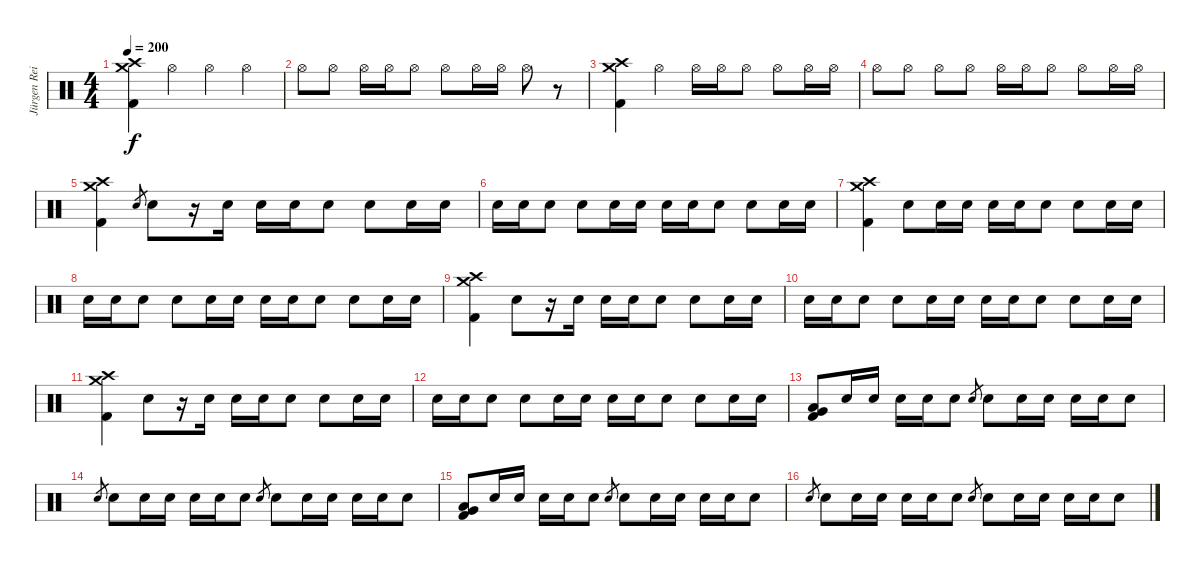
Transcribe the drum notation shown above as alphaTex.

\track ("Jürgen Reil" "Jürgen Rei") {instrument percussion}
\staff {score}
\articulation defaults
\ts (4 4)
\tempo 200
\tempo 135
\tempo 200
\clef neutral
\ks c
("Crash medium (hit)" "Crash high (hit)" "Kick (hit) 2").4{dy f} "Hi-Hat (open)".4 "Hi-Hat (open)".4 "Hi-Hat (open)".4 |
"Hi-Hat (open)".8 "Hi-Hat (open)".8 "Hi-Hat (open)".16 "Hi-Hat (open)".16 "Hi-Hat (open)".8 "Hi-Hat (open)".8 "Hi-Hat (open)".16 "Hi-Hat (open)".16 "Hi-Hat (open)".8 r.8 |
("Crash medium (hit)" "Crash high (hit)" "Kick (hit) 2").4 "Hi-Hat (open)".4 "Hi-Hat (open)".16 "Hi-Hat (open)".16 "Hi-Hat (open)".8 "Hi-Hat (open)".8 "Hi-Hat (open)".16 "Hi-Hat (open)".16 |
"Hi-Hat (open)".8 "Hi-Hat (open)".8 "Hi-Hat (open)".8 "Hi-Hat (open)".8 "Hi-Hat (open)".16 "Hi-Hat (open)".16 "Hi-Hat (open)".8 "Hi-Hat (open)".8 "Hi-Hat (open)".16 "Hi-Hat (open)".16 |
("Crash medium (hit)" "Crash high (hit)" "Kick (hit) 2").4 "Electric Snare (hit)".8{gr} "Electric Snare (hit)".8 r.16 "Electric Snare (hit)".16 "Electric Snare (hit)".16 "Electric Snare (hit)".16 "Electric Snare (hit)".8 "Electric Snare (hit)".8 "Electric Snare (hit)".16 "Electric Snare (hit)".16 |
"Electric Snare (hit)".16 "Electric Snare (hit)".16 "Electric Snare (hit)".8 "Electric Snare (hit)".8 "Electric Snare (hit)".16 "Electric Snare (hit)".16 "Electric Snare (hit)".16 "Electric Snare (hit)".16 "Electric Snare (hit)".8 "Electric Snare (hit)".8 "Electric Snare (hit)".16 "Electric Snare (hit)".16 |
("Crash medium (hit)" "Crash high (hit)" "Kick (hit) 2").4 "Electric Snare (hit)".8 "Electric Snare (hit)".16 "Electric Snare (hit)".16 "Electric Snare (hit)".16 "Electric Snare (hit)".16 "Electric Snare (hit)".8 "Electric Snare (hit)".8 "Electric Snare (hit)".16 "Electric Snare (hit)".16 |
"Electric Snare (hit)".16 "Electric Snare (hit)".16 "Electric Snare (hit)".8 "Electric Snare (hit)".8 "Electric Snare (hit)".16 "Electric Snare (hit)".16 "Electric Snare (hit)".16 "Electric Snare (hit)".16 "Electric Snare (hit)".8 "Electric Snare (hit)".8 "Electric Snare (hit)".16 "Electric Snare (hit)".16 |
("Crash medium (hit)" "Crash high (hit)" "Kick (hit) 2").4 "Electric Snare (hit)".8 r.16 "Electric Snare (hit)".16 "Electric Snare (hit)".16 "Electric Snare (hit)".16 "Electric Snare (hit)".8 "Electric Snare (hit)".8 "Electric Snare (hit)".16 "Electric Snare (hit)".16 |
"Electric Snare (hit)".16 "Electric Snare (hit)".16 "Electric Snare (hit)".8 "Electric Snare (hit)".8 "Electric Snare (hit)".16 "Electric Snare (hit)".16 "Electric Snare (hit)".16 "Electric Snare (hit)".16 "Electric Snare (hit)".8 "Electric Snare (hit)".8 "Electric Snare (hit)".16 "Electric Snare (hit)".16 |
("Crash medium (hit)" "Crash high (hit)" "Kick (hit) 2").4 "Electric Snare (hit)".8 r.16 "Electric Snare (hit)".16 "Electric Snare (hit)".16 "Electric Snare (hit)".16 "Electric Snare (hit)".8 "Electric Snare (hit)".8 "Electric Snare (hit)".16 "Electric Snare (hit)".16 |
"Electric Snare (hit)".16 "Electric Snare (hit)".16 "Electric Snare (hit)".8 "Electric Snare (hit)".8 "Electric Snare (hit)".16 "Electric Snare (hit)".16 "Electric Snare (hit)".16 "Electric Snare (hit)".16 "Electric Snare (hit)".8 "Electric Snare (hit)".8 "Electric Snare (hit)".16 "Electric Snare (hit)".16 |
("Very Low Tom (hit)" "Low Floor Tom (hit)" "Kick (hit) 2").8 "Electric Snare (hit)".16 "Electric Snare (hit)".16 "Electric Snare (hit)".16 "Electric Snare (hit)".16 "Electric Snare (hit)".8 "Electric Snare (hit)".8{gr} "Electric Snare (hit)".8 "Electric Snare (hit)".16 "Electric Snare (hit)".16 "Electric Snare (hit)".16 "Electric Snare (hit)".16 "Electric Snare (hit)".8 |
"Electric Snare (hit)".8{gr} "Electric Snare (hit)".8 "Electric Snare (hit)".16 "Electric Snare (hit)".16 "Electric Snare (hit)".16 "Electric Snare (hit)".16 "Electric Snare (hit)".8 "Electric Snare (hit)".8{gr} "Electric Snare (hit)".8 "Electric Snare (hit)".16 "Electric Snare (hit)".16 "Electric Snare (hit)".16 "Electric Snare (hit)".16 "Electric Snare (hit)".8 |
("Very Low Tom (hit)" "Low Floor Tom (hit)" "Kick (hit) 2").8 "Electric Snare (hit)".16 "Electric Snare (hit)".16 "Electric Snare (hit)".16 "Electric Snare (hit)".16 "Electric Snare (hit)".8 "Electric Snare (hit)".8{gr} "Electric Snare (hit)".8 "Electric Snare (hit)".16 "Electric Snare (hit)".16 "Electric Snare (hit)".16 "Electric Snare (hit)".16 "Electric Snare (hit)".8 |
"Electric Snare (hit)".8{gr} "Electric Snare (hit)".8 "Electric Snare (hit)".16 "Electric Snare (hit)".16 "Electric Snare (hit)".16 "Electric Snare (hit)".16 "Electric Snare (hit)".8 "Electric Snare (hit)".8{gr} "Electric Snare (hit)".8 "Electric Snare (hit)".16 "Electric Snare (hit)".16 "Electric Snare (hit)".16 "Electric Snare (hit)".16 "Electric Snare (hit)".8
